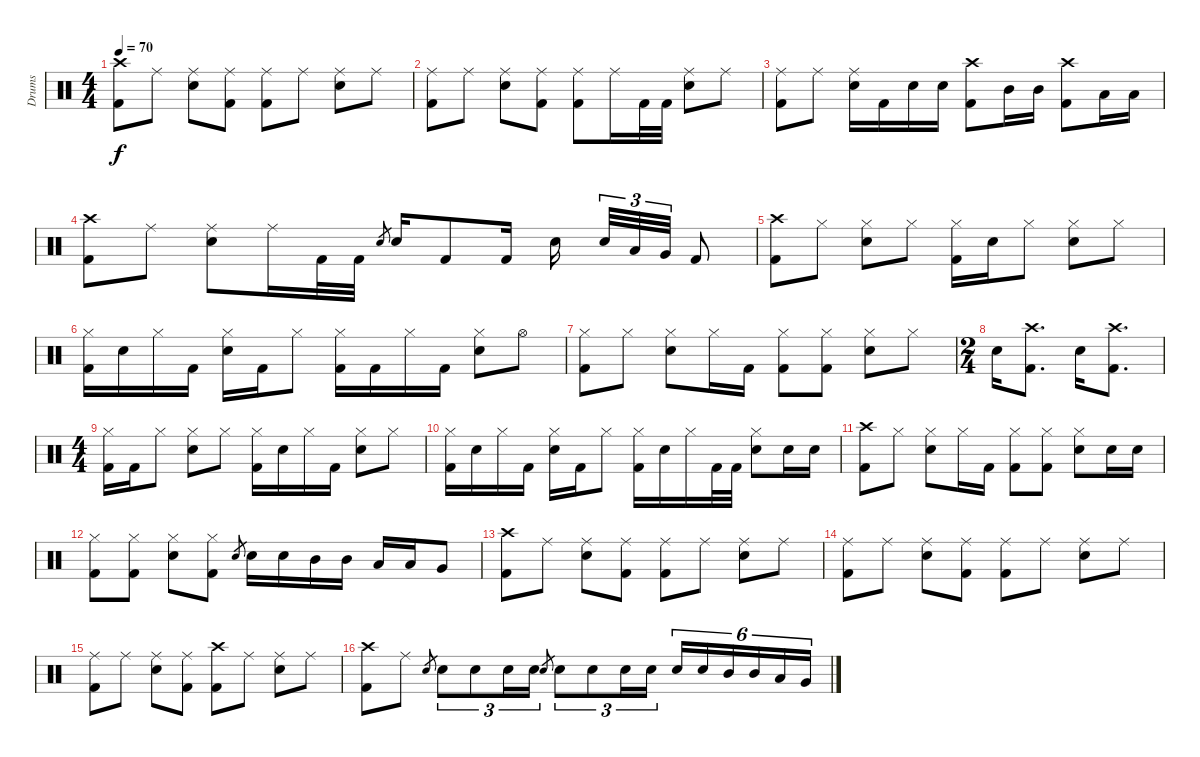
\track ("Drums" "Drums") {instrument percussion}
\staff {score}
\articulation defaults
\ts (4 4)
\tempo 70
\clef neutral
\ks c
("Crash high (hit)" "Kick (hit) 2").8{dy f} "Ride (middle)".8 ("Ride (middle)" "Electric Snare (hit)").8 ("Ride (middle)" "Kick (hit) 2").8 ("Ride (middle)" "Kick (hit) 2").8 "Ride (middle)".8 ("Ride (middle)" "Electric Snare (hit)").8 "Ride (middle)".8 |
("Ride (middle)" "Kick (hit) 2").8 "Ride (middle)".8 ("Ride (middle)" "Electric Snare (hit)").8 ("Ride (middle)" "Kick (hit) 2").8 ("Ride (middle)" "Kick (hit) 2").8 "Ride (middle)".16 "Kick (hit) 2".32 "Kick (hit) 2".32 ("Ride (middle)" "Electric Snare (hit)").8 "Ride (middle)".8 |
("Ride (middle)" "Kick (hit) 2").8 "Ride (middle)".8 ("Ride (middle)" "Electric Snare (hit)").16 "Kick (hit) 2".16 "Electric Snare (hit)".16 "Electric Snare (hit)".16 ("Crash high (hit)" "Kick (hit) 2").8 "Mid Tom (hit)".16 "Mid Tom (hit)".16 ("Crash high (hit)" "Kick (hit) 2").8 "Low Tom (hit)".16 "Low Tom (hit)".16 |
("Crash high (hit)" "Kick (hit) 2").8 "Ride (middle)".8 ("Ride (middle)" "Electric Snare (hit)").8 "Ride (middle)".16 "Kick (hit) 2".32 "Kick (hit) 2".32 "Electric Snare (hit)".8{gr} "Electric Snare (hit)".16 "Kick (hit) 2".8 "Kick (hit) 2".16 "Electric Snare (hit)".16 "Electric Snare (hit)".32{tu (3 2)} "Low Tom (hit)".32{tu (3 2)} "Very Low Tom (hit)".32{tu (3 2)} "Kick (hit) 2".8 |
("Crash high (hit)" "Kick (hit) 2").8 "Hi-Hat (closed)".8 ("Hi-Hat (closed)" "Electric Snare (hit)").8 "Hi-Hat (closed)".8 ("Hi-Hat (closed)" "Kick (hit) 2").16 "Electric Snare (hit)".16 "Hi-Hat (closed)".8 ("Hi-Hat (closed)" "Electric Snare (hit)").8 "Hi-Hat (closed)".8 |
("Hi-Hat (closed)" "Kick (hit) 2").16 "Electric Snare (hit)".16 "Hi-Hat (closed)".16 "Kick (hit) 2".16 ("Hi-Hat (closed)" "Electric Snare (hit)").16 "Kick (hit) 2".16 "Hi-Hat (closed)".8 ("Hi-Hat (closed)" "Kick (hit) 2").16 "Kick (hit) 2".16 "Hi-Hat (closed)".16 "Kick (hit) 2".16 ("Hi-Hat (closed)" "Electric Snare (hit)").8 "Hi-Hat (open)".8 |
("Hi-Hat (closed)" "Kick (hit) 2").8 "Hi-Hat (closed)".8 ("Hi-Hat (closed)" "Electric Snare (hit)").8 "Hi-Hat (closed)".16 "Kick (hit) 2".16 ("Hi-Hat (closed)" "Kick (hit) 2").8 ("Hi-Hat (closed)" "Kick (hit) 2").8 ("Hi-Hat (closed)" "Electric Snare (hit)").8 "Hi-Hat (closed)".8 |
\ts (2 4)
"Electric Snare (hit)".16 ("Crash high (hit)" "Kick (hit) 2").8{d} "Electric Snare (hit)".16 ("Crash high (hit)" "Kick (hit) 2").8{d} |
\ts (4 4)
("Hi-Hat (closed)" "Kick (hit) 2").16 "Kick (hit) 2".16 "Hi-Hat (closed)".8 ("Hi-Hat (closed)" "Electric Snare (hit)").8 "Hi-Hat (closed)".8 ("Hi-Hat (closed)" "Kick (hit) 2").16 "Electric Snare (hit)".16 "Hi-Hat (closed)".16 "Kick (hit) 2".16 ("Hi-Hat (closed)" "Electric Snare (hit)").8 "Hi-Hat (closed)".8 |
("Hi-Hat (closed)" "Kick (hit) 2").16 "Electric Snare (hit)".16 "Hi-Hat (closed)".16 "Kick (hit) 2".16 ("Hi-Hat (closed)" "Electric Snare (hit)").16 "Kick (hit) 2".16 "Hi-Hat (closed)".8 ("Hi-Hat (closed)" "Kick (hit) 2").16 "Electric Snare (hit)".16 "Hi-Hat (closed)".16 "Kick (hit) 2".32 "Kick (hit) 2".32 ("Hi-Hat (closed)" "Electric Snare (hit)").8 "Electric Snare (hit)".16 "Electric Snare (hit)".16 |
("Crash high (hit)" "Kick (hit) 2").8 "Hi-Hat (closed)".8 ("Hi-Hat (closed)" "Electric Snare (hit)").8 "Hi-Hat (closed)".16 "Kick (hit) 2".16 ("Hi-Hat (closed)" "Kick (hit) 2").8 ("Hi-Hat (closed)" "Kick (hit) 2").8 ("Hi-Hat (closed)" "Electric Snare (hit)").8 "Electric Snare (hit)".16 "Electric Snare (hit)".16 |
("Hi-Hat (closed)" "Kick (hit) 2").8 ("Hi-Hat (closed)" "Kick (hit) 2").8 ("Hi-Hat (closed)" "Electric Snare (hit)").8 ("Hi-Hat (closed)" "Kick (hit) 2").8 "Electric Snare (hit)".8{gr} "Electric Snare (hit)".16 "Electric Snare (hit)".16 "Mid Tom (hit)".16 "Mid Tom (hit)".16 "Low Tom (hit)".16 "Low Tom (hit)".16 "Very Low Tom (hit)".8 |
("Crash high (hit)" "Kick (hit) 2").8 "Ride (middle)".8 ("Ride (middle)" "Electric Snare (hit)").8 ("Ride (middle)" "Kick (hit) 2").8 ("Ride (middle)" "Kick (hit) 2").8 "Ride (middle)".8 ("Ride (middle)" "Electric Snare (hit)").8 "Ride (middle)".8 |
("Ride (middle)" "Kick (hit) 2").8 "Ride (middle)".8 ("Ride (middle)" "Electric Snare (hit)").8 ("Ride (middle)" "Kick (hit) 2").8 ("Ride (middle)" "Kick (hit) 2").8 "Ride (middle)".8 ("Ride (middle)" "Electric Snare (hit)").8 "Ride (middle)".8 |
("Ride (middle)" "Kick (hit) 2").8 "Ride (middle)".8 ("Ride (middle)" "Electric Snare (hit)").8 ("Ride (middle)" "Kick (hit) 2").8 ("Crash high (hit)" "Kick (hit) 2").8 "Ride (middle)".8 ("Ride (middle)" "Electric Snare (hit)").8 "Ride (middle)".8 |
("Crash high (hit)" "Kick (hit) 2").8 "Ride (middle)".8 "Electric Snare (hit)".8{gr} "Electric Snare (hit)".8{tu (3 2)} "Electric Snare (hit)".8{tu (3 2)} "Electric Snare (hit)".16{tu (3 2)} "Electric Snare (hit)".16{tu (3 2)} "Electric Snare (hit)".8{gr} "Electric Snare (hit)".8{tu (3 2)} "Electric Snare (hit)".8{tu (3 2)} "Electric Snare (hit)".16{tu (3 2)} "Electric Snare (hit)".16{tu (3 2)} "Electric Snare (hit)".16{tu (6 4)} "Electric Snare (hit)".16{tu (6 4)} "Mid Tom (hit)".16{tu (6 4)} "Mid Tom (hit)".16{tu (6 4)} "Low Tom (hit)".16{tu (6 4)} "Very Low Tom (hit)".16{tu (6 4)}
